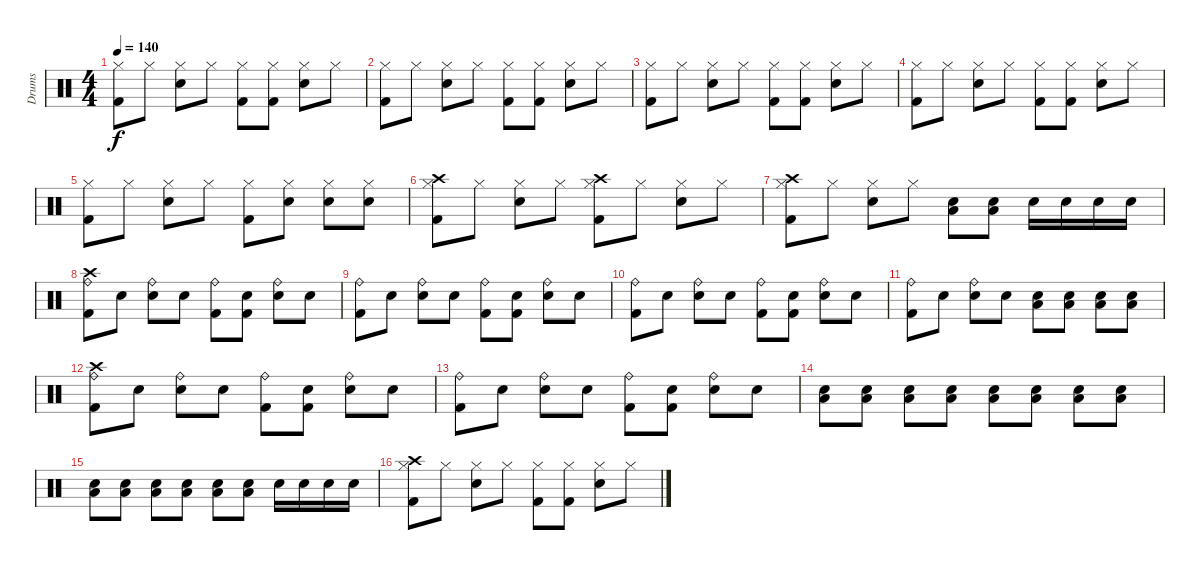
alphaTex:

\track ("Drums" "Drums") {instrument percussion}
\staff {score}
\articulation defaults
\ts (4 4)
\tempo 140
\clef neutral
\ks c
("Hi-Hat (closed)" "Kick (hit) 2").8{dy f} "Hi-Hat (closed)".8 ("Hi-Hat (closed)" "Electric Snare (hit)").8 "Hi-Hat (closed)".8 ("Hi-Hat (closed)" "Kick (hit) 2").8 ("Hi-Hat (closed)" "Kick (hit) 2").8 ("Hi-Hat (closed)" "Electric Snare (hit)").8 "Hi-Hat (closed)".8 |
("Hi-Hat (closed)" "Kick (hit) 2").8 "Hi-Hat (closed)".8 ("Hi-Hat (closed)" "Electric Snare (hit)").8 "Hi-Hat (closed)".8 ("Hi-Hat (closed)" "Kick (hit) 2").8 ("Hi-Hat (closed)" "Kick (hit) 2").8 ("Hi-Hat (closed)" "Electric Snare (hit)").8 "Hi-Hat (closed)".8 |
("Hi-Hat (closed)" "Kick (hit) 2").8 "Hi-Hat (closed)".8 ("Hi-Hat (closed)" "Electric Snare (hit)").8 "Hi-Hat (closed)".8 ("Hi-Hat (closed)" "Kick (hit) 2").8 ("Hi-Hat (closed)" "Kick (hit) 2").8 ("Hi-Hat (closed)" "Electric Snare (hit)").8 "Hi-Hat (closed)".8 |
("Hi-Hat (closed)" "Kick (hit) 2").8 "Hi-Hat (closed)".8 ("Hi-Hat (closed)" "Electric Snare (hit)").8 "Hi-Hat (closed)".8 ("Hi-Hat (closed)" "Kick (hit) 2").8 ("Hi-Hat (closed)" "Kick (hit) 2").8 ("Hi-Hat (closed)" "Electric Snare (hit)").8 "Hi-Hat (closed)".8 |
("Hi-Hat (closed)" "Kick (hit) 2").8 "Hi-Hat (closed)".8 ("Hi-Hat (closed)" "Electric Snare (hit)").8 "Hi-Hat (closed)".8 ("Hi-Hat (closed)" "Kick (hit) 2").8 ("Hi-Hat (closed)" "Electric Snare (hit)").8 ("Hi-Hat (closed)" "Electric Snare (hit)").8 ("Hi-Hat (closed)" "Electric Snare (hit)").8 |
("Hi-Hat (closed)" "Crash high (hit)" "Kick (hit) 2").8 "Hi-Hat (closed)".8 ("Hi-Hat (closed)" "Electric Snare (hit)").8 "Hi-Hat (closed)".8 ("Hi-Hat (closed)" "Crash high (hit)" "Kick (hit) 2").8 "Hi-Hat (closed)".8 ("Hi-Hat (closed)" "Electric Snare (hit)").8 "Hi-Hat (closed)".8 |
("Hi-Hat (closed)" "Crash high (hit)" "Kick (hit) 2").8 "Hi-Hat (closed)".8 ("Hi-Hat (closed)" "Electric Snare (hit)").8 "Hi-Hat (closed)".8 ("Electric Snare (hit)" "Low Tom (hit)").8 ("Electric Snare (hit)" "Low Tom (hit)").8 "Electric Snare (hit)".16 "Electric Snare (hit)".16 "Electric Snare (hit)".16 "Electric Snare (hit)".16 |
("Ride (bell)" "Kick (hit) 2" "Crash high (hit)").8 "Snare (hit)"{x}.8 ("Ride (bell)" "Electric Snare (hit)").8 "Snare (hit)"{x}.8 ("Ride (bell)" "Kick (hit) 2").8 ("Snare (hit)"{x} "Kick (hit) 2").8 ("Ride (bell)" "Electric Snare (hit)").8 "Snare (hit)"{x}.8 |
("Ride (bell)" "Kick (hit) 2").8 "Snare (hit)"{x}.8 ("Ride (bell)" "Electric Snare (hit)").8 "Snare (hit)"{x}.8 ("Ride (bell)" "Kick (hit) 2").8 ("Snare (hit)"{x} "Kick (hit) 2").8 ("Ride (bell)" "Electric Snare (hit)").8 "Snare (hit)"{x}.8 |
("Ride (bell)" "Kick (hit) 2").8 "Snare (hit)"{x}.8 ("Ride (bell)" "Electric Snare (hit)").8 "Snare (hit)"{x}.8 ("Ride (bell)" "Kick (hit) 2").8 ("Snare (hit)"{x} "Kick (hit) 2").8 ("Ride (bell)" "Electric Snare (hit)").8 "Snare (hit)"{x}.8 |
("Ride (bell)" "Kick (hit) 2").8 "Snare (hit)"{x}.8 ("Ride (bell)" "Electric Snare (hit)").8 "Snare (hit)"{x}.8 ("Electric Snare (hit)" "Low Tom (hit)").8 ("Electric Snare (hit)" "Low Tom (hit)").8 ("Electric Snare (hit)" "Low Tom (hit)").8 ("Electric Snare (hit)" "Low Tom (hit)").8 |
("Ride (bell)" "Kick (hit) 2" "Crash high (hit)").8 "Snare (hit)"{x}.8 ("Ride (bell)" "Electric Snare (hit)").8 "Snare (hit)"{x}.8 ("Ride (bell)" "Kick (hit) 2").8 ("Snare (hit)"{x} "Kick (hit) 2").8 ("Ride (bell)" "Electric Snare (hit)").8 "Snare (hit)"{x}.8 |
("Ride (bell)" "Kick (hit) 2").8 "Snare (hit)"{x}.8 ("Ride (bell)" "Electric Snare (hit)").8 "Snare (hit)"{x}.8 ("Ride (bell)" "Kick (hit) 2").8 ("Snare (hit)"{x} "Kick (hit) 2").8 ("Ride (bell)" "Electric Snare (hit)").8 "Snare (hit)"{x}.8 |
("Electric Snare (hit)" "Low Tom (hit)").8 ("Electric Snare (hit)" "Low Tom (hit)").8 ("Electric Snare (hit)" "Low Tom (hit)").8 ("Electric Snare (hit)" "Low Tom (hit)").8 ("Electric Snare (hit)" "Low Tom (hit)").8 ("Electric Snare (hit)" "Low Tom (hit)").8 ("Electric Snare (hit)" "Low Tom (hit)").8 ("Electric Snare (hit)" "Low Tom (hit)").8 |
("Electric Snare (hit)" "Low Tom (hit)").8 ("Electric Snare (hit)" "Low Tom (hit)").8 ("Electric Snare (hit)" "Low Tom (hit)").8 ("Electric Snare (hit)" "Low Tom (hit)").8 ("Electric Snare (hit)" "Low Tom (hit)").8 ("Electric Snare (hit)" "Low Tom (hit)").8 "Electric Snare (hit)".16 "Electric Snare (hit)".16 "Electric Snare (hit)".16 "Electric Snare (hit)".16 |
("Hi-Hat (closed)" "Kick (hit) 2" "Crash high (hit)").8 "Hi-Hat (closed)".8 ("Hi-Hat (closed)" "Electric Snare (hit)").8 "Hi-Hat (closed)".8 ("Hi-Hat (closed)" "Kick (hit) 2").8 ("Hi-Hat (closed)" "Kick (hit) 2").8 ("Hi-Hat (closed)" "Electric Snare (hit)").8 "Hi-Hat (closed)".8
